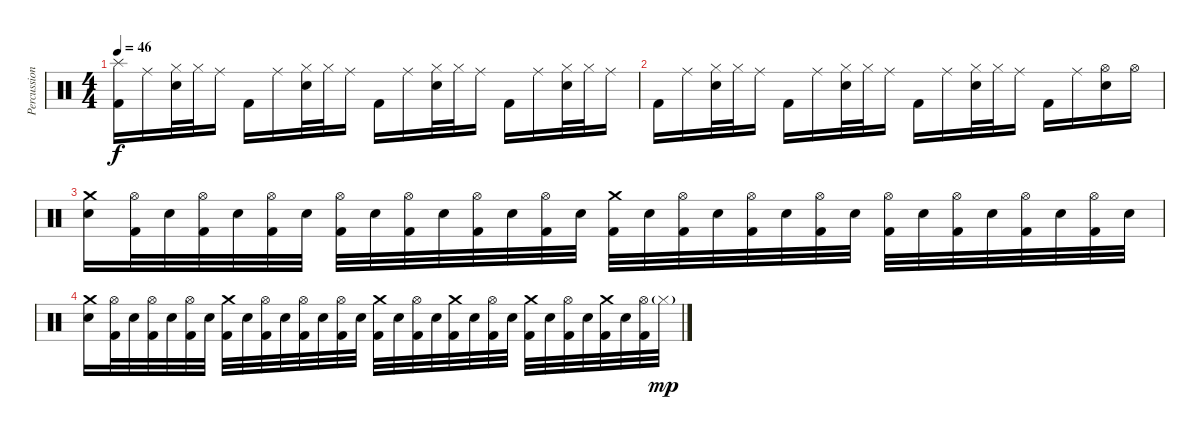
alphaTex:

\track ("Percussion" "Percussion") {instrument percussion}
\staff {score}
\articulation defaults
\ts (4 4)
\tempo 46
\clef neutral
\ks c
("Splash (hit)" "Kick (hit) 2").16{dy f} "Ride (middle)".16 ("Hi-Hat (closed)" "Electric Snare (hit)").32 "Hi-Hat (closed)".32 "Ride (middle)".16 "Kick (hit) 2".16 "Ride (middle)".16 ("Hi-Hat (closed)" "Electric Snare (hit)").32 "Hi-Hat (closed)".32 "Ride (middle)".16 "Kick (hit) 2".16 "Ride (middle)".16 ("Hi-Hat (closed)" "Electric Snare (hit)").32 "Hi-Hat (closed)".32 "Ride (middle)".16 "Kick (hit) 2".16 "Ride (middle)".16 ("Hi-Hat (closed)" "Electric Snare (hit)").32 "Hi-Hat (closed)".32 "Ride (middle)".16 |
"Kick (hit) 2".16 "Ride (middle)".16 ("Hi-Hat (closed)" "Electric Snare (hit)").32 "Hi-Hat (closed)".32 "Ride (middle)".16 "Kick (hit) 2".16 "Ride (middle)".16 ("Hi-Hat (closed)" "Electric Snare (hit)").32 "Hi-Hat (closed)".32 "Ride (middle)".16 "Kick (hit) 2".16 "Ride (middle)".16 ("Hi-Hat (closed)" "Electric Snare (hit)").32 "Hi-Hat (closed)".32 "Ride (middle)".16 "Kick (hit) 2".16 "Ride (middle)".16 ("Hi-Hat (open)" "Electric Snare (hit)").16 "Hi-Hat (open)".16 |
("Crash medium (hit)" "Electric Snare (hit)").16 ("Hi-Hat (open)" "Kick (hit) 2").32 "Electric Snare (hit)".32 ("Hi-Hat (open)" "Kick (hit) 2").32 "Electric Snare (hit)".32 ("Hi-Hat (open)" "Kick (hit) 2").32 "Electric Snare (hit)".32 ("Hi-Hat (open)" "Kick (hit) 2").32 "Electric Snare (hit)".32 ("Hi-Hat (open)" "Kick (hit) 2").32 "Electric Snare (hit)".32 ("Hi-Hat (open)" "Kick (hit) 2").32 "Electric Snare (hit)".32 ("Hi-Hat (open)" "Kick (hit) 2").32 "Electric Snare (hit)".32 ("Crash medium (hit)" "Kick (hit) 2").32 "Electric Snare (hit)".32 ("Hi-Hat (open)" "Kick (hit) 2").32 "Electric Snare (hit)".32 ("Hi-Hat (open)" "Kick (hit) 2").32 "Electric Snare (hit)".32 ("Hi-Hat (open)" "Kick (hit) 2").32 "Electric Snare (hit)".32 ("Hi-Hat (open)" "Kick (hit) 2").32 "Electric Snare (hit)".32 ("Hi-Hat (open)" "Kick (hit) 2").32 "Electric Snare (hit)".32 ("Hi-Hat (open)" "Kick (hit) 2").32 "Electric Snare (hit)".32 ("Hi-Hat (open)" "Kick (hit) 2").32 "Electric Snare (hit)".32 |
("Crash medium (hit)" "Electric Snare (hit)").16 ("Hi-Hat (open)" "Kick (hit) 2").32 "Electric Snare (hit)".32 ("Hi-Hat (open)" "Kick (hit) 2").32 "Electric Snare (hit)".32 ("Hi-Hat (open)" "Kick (hit) 2").32 "Electric Snare (hit)".32 ("Crash medium (hit)" "Kick (hit) 2").32 "Electric Snare (hit)".32 ("Hi-Hat (open)" "Kick (hit) 2").32 "Electric Snare (hit)".32 ("Hi-Hat (open)" "Kick (hit) 2").32 "Electric Snare (hit)".32 ("Hi-Hat (open)" "Kick (hit) 2").32 "Electric Snare (hit)".32 ("Crash medium (hit)" "Kick (hit) 2").32 "Electric Snare (hit)".32 ("Hi-Hat (open)" "Kick (hit) 2").32 "Electric Snare (hit)".32 ("Crash medium (hit)" "Kick (hit) 2").32 "Electric Snare (hit)".32 ("Hi-Hat (open)" "Kick (hit) 2").32 "Electric Snare (hit)".32 ("Crash medium (hit)" "Kick (hit) 2").32 "Electric Snare (hit)".32 ("Hi-Hat (open)" "Kick (hit) 2").32 "Electric Snare (hit)".32 ("Crash medium (hit)" "Kick (hit) 2").32 "Electric Snare (hit)".32 ("Hi-Hat (open)" "Kick (hit) 2").32 "Hi-Hat (closed)"{g}.32{dy mp}
